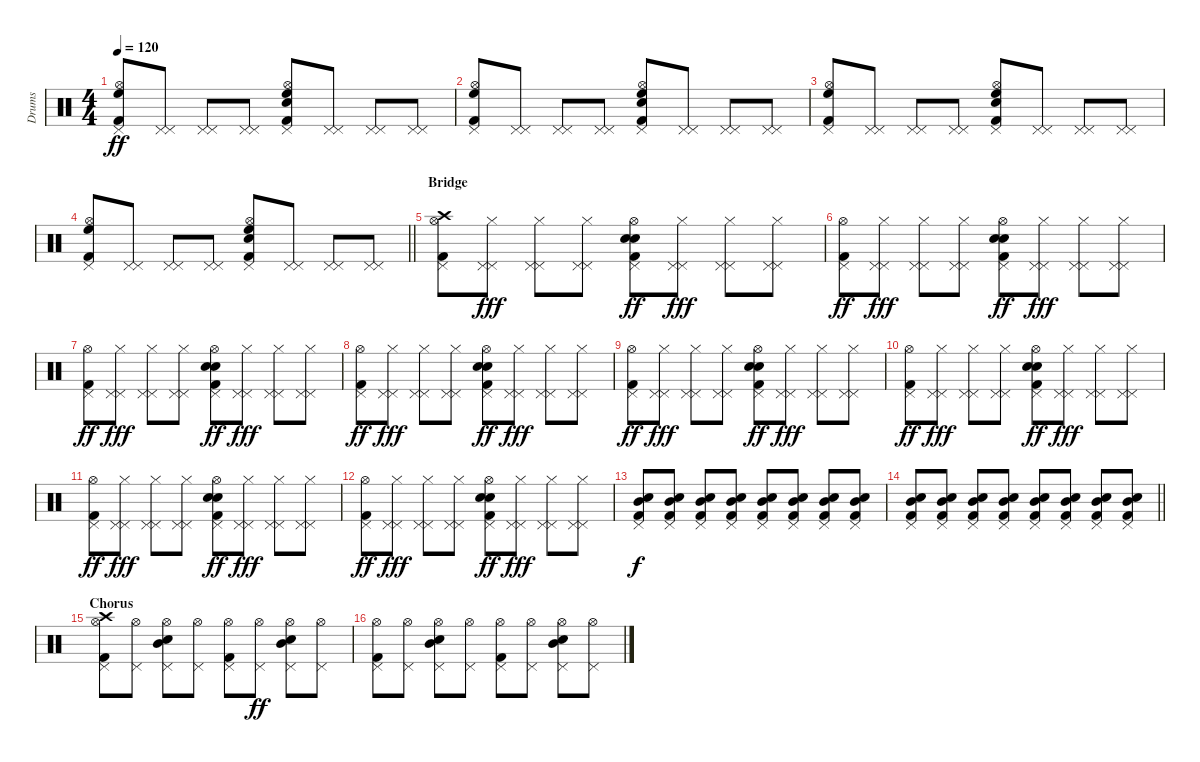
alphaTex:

\track ("Drums" "Drums") {instrument percussion}
\staff {score}
\articulation defaults
\ts (4 4)
\tempo 120
\clef neutral
\ks c
("High Floor Tom (hit)" "Hi-Hat (open)" "Pedal Hi-Hat (hit)" "Kick (hit) 2").8{dy ff} ("Pedal Hi-Hat (hit)" "Pedal Hi-Hat (hit)").8 ("Pedal Hi-Hat (hit)" "Pedal Hi-Hat (hit)").8 ("Pedal Hi-Hat (hit)" "Pedal Hi-Hat (hit)").8 ("High Floor Tom (hit)" "Hi-Hat (open)" "Electric Snare (hit)" "Pedal Hi-Hat (hit)" "Kick (hit) 2").8 ("Pedal Hi-Hat (hit)" "Pedal Hi-Hat (hit)").8 ("Pedal Hi-Hat (hit)" "Pedal Hi-Hat (hit)").8 ("Pedal Hi-Hat (hit)" "Pedal Hi-Hat (hit)").8 |
("High Floor Tom (hit)" "Hi-Hat (open)" "Pedal Hi-Hat (hit)" "Kick (hit) 2").8 ("Pedal Hi-Hat (hit)" "Pedal Hi-Hat (hit)").8 ("Pedal Hi-Hat (hit)" "Pedal Hi-Hat (hit)").8 ("Pedal Hi-Hat (hit)" "Pedal Hi-Hat (hit)").8 ("High Floor Tom (hit)" "Hi-Hat (open)" "Electric Snare (hit)" "Pedal Hi-Hat (hit)" "Kick (hit) 2").8 ("Pedal Hi-Hat (hit)" "Pedal Hi-Hat (hit)").8 ("Pedal Hi-Hat (hit)" "Pedal Hi-Hat (hit)").8 ("Pedal Hi-Hat (hit)" "Pedal Hi-Hat (hit)").8 |
("High Floor Tom (hit)" "Hi-Hat (open)" "Pedal Hi-Hat (hit)" "Kick (hit) 2").8 ("Pedal Hi-Hat (hit)" "Pedal Hi-Hat (hit)").8 ("Pedal Hi-Hat (hit)" "Pedal Hi-Hat (hit)").8 ("Pedal Hi-Hat (hit)" "Pedal Hi-Hat (hit)").8 ("High Floor Tom (hit)" "Hi-Hat (open)" "Electric Snare (hit)" "Pedal Hi-Hat (hit)" "Kick (hit) 2").8 ("Pedal Hi-Hat (hit)" "Pedal Hi-Hat (hit)").8 ("Pedal Hi-Hat (hit)" "Pedal Hi-Hat (hit)").8 ("Pedal Hi-Hat (hit)" "Pedal Hi-Hat (hit)").8 |
\barLineRight lightlight
("High Floor Tom (hit)" "Hi-Hat (open)" "Pedal Hi-Hat (hit)" "Kick (hit) 2").8 ("Pedal Hi-Hat (hit)" "Pedal Hi-Hat (hit)").8 ("Pedal Hi-Hat (hit)" "Pedal Hi-Hat (hit)").8 ("Pedal Hi-Hat (hit)" "Pedal Hi-Hat (hit)").8 ("High Floor Tom (hit)" "Hi-Hat (open)" "Electric Snare (hit)" "Pedal Hi-Hat (hit)" "Kick (hit) 2").8 ("Pedal Hi-Hat (hit)" "Pedal Hi-Hat (hit)").8 ("Pedal Hi-Hat (hit)" "Pedal Hi-Hat (hit)").8 ("Pedal Hi-Hat (hit)" "Pedal Hi-Hat (hit)").8 |
\section ("" "Bridge")
("Crash high (hit)" "Hi-Hat (open)" "Pedal Hi-Hat (hit)" "Kick (hit) 2").8 ("Hi-Hat (closed)" "Pedal Hi-Hat (hit)" "Pedal Hi-Hat (hit)").8{dy fff} ("Hi-Hat (closed)" "Pedal Hi-Hat (hit)" "Pedal Hi-Hat (hit)").8 ("Hi-Hat (closed)" "Pedal Hi-Hat (hit)" "Pedal Hi-Hat (hit)").8 ("Snare (hit) 2" "Hi-Hat (open)" "Electric Snare (hit)" "Pedal Hi-Hat (hit)" "Kick (hit) 2").8{dy ff} ("Hi-Hat (closed)" "Pedal Hi-Hat (hit)" "Pedal Hi-Hat (hit)").8{dy fff} ("Hi-Hat (closed)" "Pedal Hi-Hat (hit)" "Pedal Hi-Hat (hit)").8 ("Hi-Hat (closed)" "Pedal Hi-Hat (hit)" "Pedal Hi-Hat (hit)").8 |
("Hi-Hat (open)" "Pedal Hi-Hat (hit)" "Kick (hit) 2").8{dy ff} ("Hi-Hat (closed)" "Pedal Hi-Hat (hit)" "Pedal Hi-Hat (hit)").8{dy fff} ("Hi-Hat (closed)" "Pedal Hi-Hat (hit)" "Pedal Hi-Hat (hit)").8 ("Hi-Hat (closed)" "Pedal Hi-Hat (hit)" "Pedal Hi-Hat (hit)").8 ("Snare (hit) 2" "Hi-Hat (open)" "Electric Snare (hit)" "Pedal Hi-Hat (hit)" "Kick (hit) 2").8{dy ff} ("Hi-Hat (closed)" "Pedal Hi-Hat (hit)" "Pedal Hi-Hat (hit)").8{dy fff} ("Hi-Hat (closed)" "Pedal Hi-Hat (hit)" "Pedal Hi-Hat (hit)").8 ("Hi-Hat (closed)" "Pedal Hi-Hat (hit)" "Pedal Hi-Hat (hit)").8 |
("Hi-Hat (open)" "Pedal Hi-Hat (hit)" "Kick (hit) 2").8{dy ff} ("Hi-Hat (closed)" "Pedal Hi-Hat (hit)" "Pedal Hi-Hat (hit)").8{dy fff} ("Hi-Hat (closed)" "Pedal Hi-Hat (hit)" "Pedal Hi-Hat (hit)").8 ("Hi-Hat (closed)" "Pedal Hi-Hat (hit)" "Pedal Hi-Hat (hit)").8 ("Snare (hit) 2" "Hi-Hat (open)" "Electric Snare (hit)" "Pedal Hi-Hat (hit)" "Kick (hit) 2").8{dy ff} ("Hi-Hat (closed)" "Pedal Hi-Hat (hit)" "Pedal Hi-Hat (hit)").8{dy fff} ("Hi-Hat (closed)" "Pedal Hi-Hat (hit)" "Pedal Hi-Hat (hit)").8 ("Hi-Hat (closed)" "Pedal Hi-Hat (hit)" "Pedal Hi-Hat (hit)").8 |
("Hi-Hat (open)" "Pedal Hi-Hat (hit)" "Kick (hit) 2").8{dy ff} ("Hi-Hat (closed)" "Pedal Hi-Hat (hit)" "Pedal Hi-Hat (hit)").8{dy fff} ("Hi-Hat (closed)" "Pedal Hi-Hat (hit)" "Pedal Hi-Hat (hit)").8 ("Hi-Hat (closed)" "Pedal Hi-Hat (hit)" "Pedal Hi-Hat (hit)").8 ("Snare (hit) 2" "Hi-Hat (open)" "Electric Snare (hit)" "Pedal Hi-Hat (hit)" "Kick (hit) 2").8{dy ff} ("Hi-Hat (closed)" "Pedal Hi-Hat (hit)" "Pedal Hi-Hat (hit)").8{dy fff} ("Hi-Hat (closed)" "Pedal Hi-Hat (hit)" "Pedal Hi-Hat (hit)").8 ("Hi-Hat (closed)" "Pedal Hi-Hat (hit)" "Pedal Hi-Hat (hit)").8 |
("Hi-Hat (open)" "Pedal Hi-Hat (hit)" "Kick (hit) 2").8{dy ff} ("Hi-Hat (closed)" "Pedal Hi-Hat (hit)" "Pedal Hi-Hat (hit)").8{dy fff} ("Hi-Hat (closed)" "Pedal Hi-Hat (hit)" "Pedal Hi-Hat (hit)").8 ("Hi-Hat (closed)" "Pedal Hi-Hat (hit)" "Pedal Hi-Hat (hit)").8 ("Snare (hit) 2" "Hi-Hat (open)" "Electric Snare (hit)" "Pedal Hi-Hat (hit)" "Kick (hit) 2").8{dy ff} ("Hi-Hat (closed)" "Pedal Hi-Hat (hit)" "Pedal Hi-Hat (hit)").8{dy fff} ("Hi-Hat (closed)" "Pedal Hi-Hat (hit)" "Pedal Hi-Hat (hit)").8 ("Hi-Hat (closed)" "Pedal Hi-Hat (hit)" "Pedal Hi-Hat (hit)").8 |
("Hi-Hat (open)" "Pedal Hi-Hat (hit)" "Kick (hit) 2").8{dy ff} ("Hi-Hat (closed)" "Pedal Hi-Hat (hit)" "Pedal Hi-Hat (hit)").8{dy fff} ("Hi-Hat (closed)" "Pedal Hi-Hat (hit)" "Pedal Hi-Hat (hit)").8 ("Hi-Hat (closed)" "Pedal Hi-Hat (hit)" "Pedal Hi-Hat (hit)").8 ("Snare (hit) 2" "Hi-Hat (open)" "Electric Snare (hit)" "Pedal Hi-Hat (hit)" "Kick (hit) 2").8{dy ff} ("Hi-Hat (closed)" "Pedal Hi-Hat (hit)" "Pedal Hi-Hat (hit)").8{dy fff} ("Hi-Hat (closed)" "Pedal Hi-Hat (hit)" "Pedal Hi-Hat (hit)").8 ("Hi-Hat (closed)" "Pedal Hi-Hat (hit)" "Pedal Hi-Hat (hit)").8 |
("Hi-Hat (open)" "Pedal Hi-Hat (hit)" "Kick (hit) 2").8{dy ff} ("Hi-Hat (closed)" "Pedal Hi-Hat (hit)" "Pedal Hi-Hat (hit)").8{dy fff} ("Hi-Hat (closed)" "Pedal Hi-Hat (hit)" "Pedal Hi-Hat (hit)").8 ("Hi-Hat (closed)" "Pedal Hi-Hat (hit)" "Pedal Hi-Hat (hit)").8 ("Snare (hit) 2" "Hi-Hat (open)" "Electric Snare (hit)" "Pedal Hi-Hat (hit)" "Kick (hit) 2").8{dy ff} ("Hi-Hat (closed)" "Pedal Hi-Hat (hit)" "Pedal Hi-Hat (hit)").8{dy fff} ("Hi-Hat (closed)" "Pedal Hi-Hat (hit)" "Pedal Hi-Hat (hit)").8 ("Hi-Hat (closed)" "Pedal Hi-Hat (hit)" "Pedal Hi-Hat (hit)").8 |
("Hi-Hat (open)" "Pedal Hi-Hat (hit)" "Kick (hit) 2").8{dy ff} ("Hi-Hat (closed)" "Pedal Hi-Hat (hit)" "Pedal Hi-Hat (hit)").8{dy fff} ("Hi-Hat (closed)" "Pedal Hi-Hat (hit)" "Pedal Hi-Hat (hit)").8 ("Hi-Hat (closed)" "Pedal Hi-Hat (hit)" "Pedal Hi-Hat (hit)").8 ("Snare (hit) 2" "Hi-Hat (open)" "Electric Snare (hit)" "Pedal Hi-Hat (hit)" "Kick (hit) 2").8{dy ff} ("Hi-Hat (closed)" "Pedal Hi-Hat (hit)" "Pedal Hi-Hat (hit)").8{dy fff} ("Hi-Hat (closed)" "Pedal Hi-Hat (hit)" "Pedal Hi-Hat (hit)").8 ("Hi-Hat (closed)" "Pedal Hi-Hat (hit)" "Pedal Hi-Hat (hit)").8 |
("Snare (hit) 2" "Mid Tom (hit)" "Pedal Hi-Hat (hit)" "Kick (hit) 2").8{dy f volume 8} ("Snare (hit) 2" "Mid Tom (hit)" "Pedal Hi-Hat (hit)" "Kick (hit) 2").8 ("Snare (hit) 2" "Mid Tom (hit)" "Pedal Hi-Hat (hit)" "Kick (hit) 2").8 ("Snare (hit) 2" "Mid Tom (hit)" "Pedal Hi-Hat (hit)" "Kick (hit) 2").8 ("Snare (hit) 2" "Mid Tom (hit)" "Pedal Hi-Hat (hit)" "Kick (hit) 2").8{volume 9} ("Snare (hit) 2" "Mid Tom (hit)" "Pedal Hi-Hat (hit)" "Kick (hit) 2").8 ("Snare (hit) 2" "Mid Tom (hit)" "Pedal Hi-Hat (hit)" "Kick (hit) 2").8 ("Snare (hit) 2" "Mid Tom (hit)" "Pedal Hi-Hat (hit)" "Kick (hit) 2").8 |
\barLineRight lightlight
("Snare (hit) 2" "Mid Tom (hit)" "Pedal Hi-Hat (hit)" "Kick (hit) 2").8{volume 10} ("Snare (hit) 2" "Mid Tom (hit)" "Pedal Hi-Hat (hit)" "Kick (hit) 2").8{volume 10} ("Snare (hit) 2" "Mid Tom (hit)" "Pedal Hi-Hat (hit)" "Kick (hit) 2").8{volume 11} ("Snare (hit) 2" "Mid Tom (hit)" "Pedal Hi-Hat (hit)" "Kick (hit) 2").8{volume 11} ("Snare (hit) 2" "Mid Tom (hit)" "Pedal Hi-Hat (hit)" "Kick (hit) 2").8{volume 12} ("Snare (hit) 2" "Mid Tom (hit)" "Pedal Hi-Hat (hit)" "Kick (hit) 2").8{volume 12} ("Snare (hit) 2" "Mid Tom (hit)" "Pedal Hi-Hat (hit)" "Kick (hit) 2").8{volume 12} ("Snare (hit) 2" "Mid Tom (hit)" "Pedal Hi-Hat (hit)" "Kick (hit) 2").8{volume 12} |
\section ("" "Chorus")
("Pedal Hi-Hat (hit)" "Hi-Hat (open)" "Crash high (hit)" "Kick (hit) 2").8 ("Pedal Hi-Hat (hit)" "Hi-Hat (open)").8 ("Pedal Hi-Hat (hit)" "Hi-Hat (open)" "Electric Snare (hit)" "Mid Tom (hit)").8 ("Pedal Hi-Hat (hit)" "Hi-Hat (open)").8 ("Pedal Hi-Hat (hit)" "Hi-Hat (open)" "Kick (hit) 2").8 ("Pedal Hi-Hat (hit)" "Hi-Hat (open)").8{dy ff} ("Pedal Hi-Hat (hit)" "Hi-Hat (open)" "Electric Snare (hit)" "Mid Tom (hit)").8 ("Pedal Hi-Hat (hit)" "Hi-Hat (open)").8 |
("Pedal Hi-Hat (hit)" "Hi-Hat (open)" "Kick (hit) 2").8 ("Pedal Hi-Hat (hit)" "Hi-Hat (open)").8 ("Pedal Hi-Hat (hit)" "Hi-Hat (open)" "Electric Snare (hit)" "Mid Tom (hit)").8 ("Pedal Hi-Hat (hit)" "Hi-Hat (open)").8 ("Pedal Hi-Hat (hit)" "Hi-Hat (open)" "Kick (hit) 2").8 ("Pedal Hi-Hat (hit)" "Hi-Hat (open)").8 ("Pedal Hi-Hat (hit)" "Hi-Hat (open)" "Electric Snare (hit)" "Mid Tom (hit)").8 ("Pedal Hi-Hat (hit)" "Hi-Hat (open)").8
